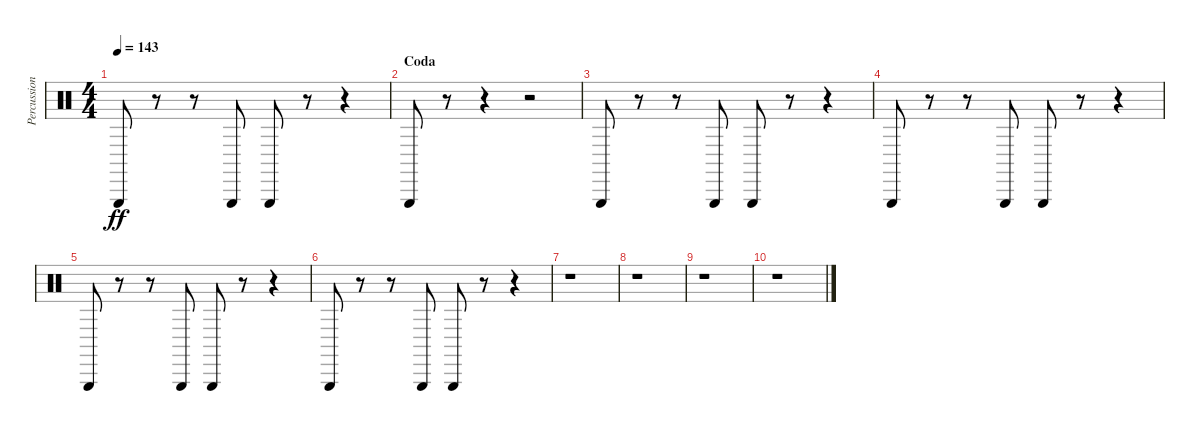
\track ("Percussion" "Percussion") {instrument percussion}
\staff {score}
\articulation defaults
\ts (4 4)
\tempo 143
\clef neutral
\ks c "Triangle (hit)".8{dy ff}
r.8 r.8 "Triangle (hit)".8 "Triangle (hit)".8 r.8 r.4 |
\section ("" "Coda")
"Triangle (hit)".8 r.8 r.4 r.2 |
"Triangle (hit)".8 r.8 r.8 "Triangle (hit)".8 "Triangle (hit)".8 r.8 r.4 |
"Triangle (hit)".8 r.8 r.8 "Triangle (hit)".8 "Triangle (hit)".8 r.8 r.4 |
"Triangle (hit)".8 r.8 r.8 "Triangle (hit)".8 "Triangle (hit)".8 r.8 r.4 |
"Triangle (hit)".8 r.8 r.8 "Triangle (hit)".8 "Triangle (hit)".8 r.8 r.4 |
r.1 |
r.1 |
r.1 |
r.1
